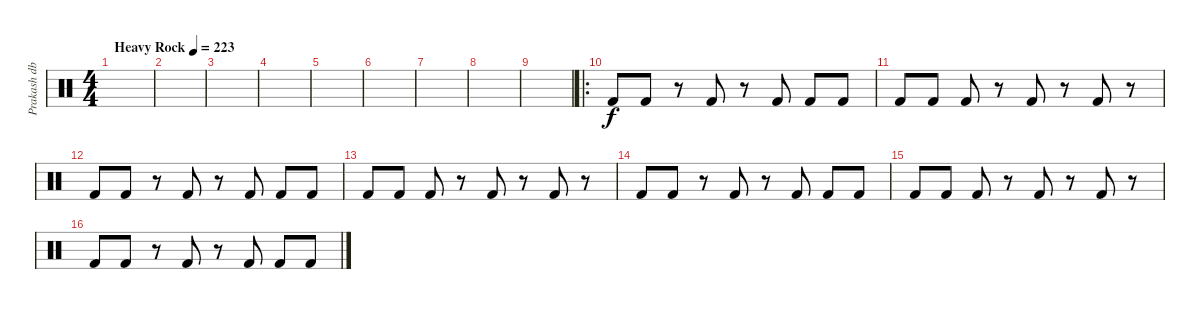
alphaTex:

\track ("Prakash db" "Prakash db") {instrument percussion}
\staff {score}
\articulation defaults
\ts (4 4)
\tempo (223 "Heavy Rock")
\clef neutral
\ks c
|
|
|
|
|
|
|
|
|
\ro "Kick (hit) 2".8 "Kick (hit) 2".8
r.8 "Kick (hit) 2".8 r.8 "Kick (hit) 2".8 "Kick (hit) 2".8 "Kick (hit) 2".8 |
"Kick (hit) 2".8 "Kick (hit) 2".8 "Kick (hit) 2".8 r.8 "Kick (hit) 2".8 r.8 "Kick (hit) 2".8 r.8 |
"Kick (hit) 2".8 "Kick (hit) 2".8 r.8 "Kick (hit) 2".8 r.8 "Kick (hit) 2".8 "Kick (hit) 2".8 "Kick (hit) 2".8 |
"Kick (hit) 2".8 "Kick (hit) 2".8 "Kick (hit) 2".8 r.8 "Kick (hit) 2".8 r.8 "Kick (hit) 2".8 r.8 |
"Kick (hit) 2".8 "Kick (hit) 2".8 r.8 "Kick (hit) 2".8 r.8 "Kick (hit) 2".8 "Kick (hit) 2".8 "Kick (hit) 2".8 |
"Kick (hit) 2".8 "Kick (hit) 2".8 "Kick (hit) 2".8 r.8 "Kick (hit) 2".8 r.8 "Kick (hit) 2".8 r.8 |
"Kick (hit) 2".8 "Kick (hit) 2".8 r.8 "Kick (hit) 2".8 r.8 "Kick (hit) 2".8 "Kick (hit) 2".8 "Kick (hit) 2".8
